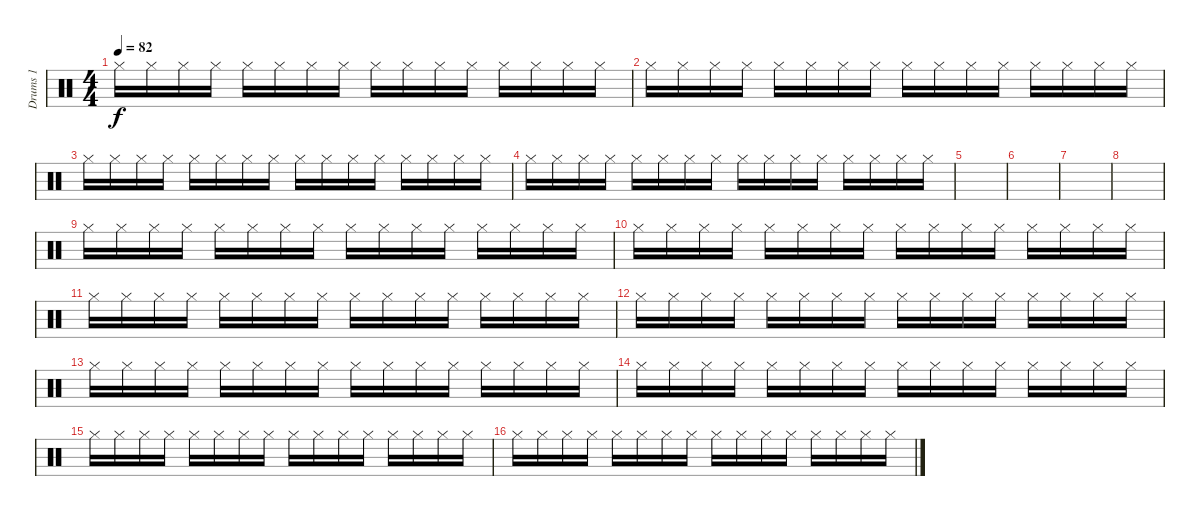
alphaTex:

\track ("Drums 1" "Drums 1") {instrument percussion}
\staff {score}
\articulation defaults
\ts (4 4)
\tempo 82
\clef neutral
\ks c "Hi-Hat (closed)".16{dy f} "Hi-Hat (closed)".16 "Hi-Hat (closed)".16 "Hi-Hat (closed)".16 "Hi-Hat (closed)".16 "Hi-Hat (closed)".16 "Hi-Hat (closed)".16 "Hi-Hat (closed)".16 "Hi-Hat (closed)".16 "Hi-Hat (closed)".16 "Hi-Hat (closed)".16 "Hi-Hat (closed)".16 "Hi-Hat (closed)".16 "Hi-Hat (closed)".16 "Hi-Hat (closed)".16 "Hi-Hat (closed)".16
|
"Hi-Hat (closed)".16 "Hi-Hat (closed)".16 "Hi-Hat (closed)".16 "Hi-Hat (closed)".16 "Hi-Hat (closed)".16 "Hi-Hat (closed)".16 "Hi-Hat (closed)".16 "Hi-Hat (closed)".16 "Hi-Hat (closed)".16 "Hi-Hat (closed)".16 "Hi-Hat (closed)".16 "Hi-Hat (closed)".16 "Hi-Hat (closed)".16 "Hi-Hat (closed)".16 "Hi-Hat (closed)".16 "Hi-Hat (closed)".16 |
"Hi-Hat (closed)".16 "Hi-Hat (closed)".16 "Hi-Hat (closed)".16 "Hi-Hat (closed)".16 "Hi-Hat (closed)".16 "Hi-Hat (closed)".16 "Hi-Hat (closed)".16 "Hi-Hat (closed)".16 "Hi-Hat (closed)".16 "Hi-Hat (closed)".16 "Hi-Hat (closed)".16 "Hi-Hat (closed)".16 "Hi-Hat (closed)".16 "Hi-Hat (closed)".16 "Hi-Hat (closed)".16 "Hi-Hat (closed)".16 |
"Hi-Hat (closed)".16 "Hi-Hat (closed)".16 "Hi-Hat (closed)".16 "Hi-Hat (closed)".16 "Hi-Hat (closed)".16 "Hi-Hat (closed)".16 "Hi-Hat (closed)".16 "Hi-Hat (closed)".16 "Hi-Hat (closed)".16 "Hi-Hat (closed)".16 "Hi-Hat (closed)".16 "Hi-Hat (closed)".16 "Hi-Hat (closed)".16 "Hi-Hat (closed)".16 "Hi-Hat (closed)".16 "Hi-Hat (closed)".16 |
|
|
|
|
"Hi-Hat (closed)".16 "Hi-Hat (closed)".16 "Hi-Hat (closed)".16 "Hi-Hat (closed)".16 "Hi-Hat (closed)".16 "Hi-Hat (closed)".16 "Hi-Hat (closed)".16 "Hi-Hat (closed)".16 "Hi-Hat (closed)".16 "Hi-Hat (closed)".16 "Hi-Hat (closed)".16 "Hi-Hat (closed)".16 "Hi-Hat (closed)".16 "Hi-Hat (closed)".16 "Hi-Hat (closed)".16 "Hi-Hat (closed)".16 |
"Hi-Hat (closed)".16 "Hi-Hat (closed)".16 "Hi-Hat (closed)".16 "Hi-Hat (closed)".16 "Hi-Hat (closed)".16 "Hi-Hat (closed)".16 "Hi-Hat (closed)".16 "Hi-Hat (closed)".16 "Hi-Hat (closed)".16 "Hi-Hat (closed)".16 "Hi-Hat (closed)".16 "Hi-Hat (closed)".16 "Hi-Hat (closed)".16 "Hi-Hat (closed)".16 "Hi-Hat (closed)".16 "Hi-Hat (closed)".16 |
"Hi-Hat (closed)".16 "Hi-Hat (closed)".16 "Hi-Hat (closed)".16 "Hi-Hat (closed)".16 "Hi-Hat (closed)".16 "Hi-Hat (closed)".16 "Hi-Hat (closed)".16 "Hi-Hat (closed)".16 "Hi-Hat (closed)".16 "Hi-Hat (closed)".16 "Hi-Hat (closed)".16 "Hi-Hat (closed)".16 "Hi-Hat (closed)".16 "Hi-Hat (closed)".16 "Hi-Hat (closed)".16 "Hi-Hat (closed)".16 |
"Hi-Hat (closed)".16 "Hi-Hat (closed)".16 "Hi-Hat (closed)".16 "Hi-Hat (closed)".16 "Hi-Hat (closed)".16 "Hi-Hat (closed)".16 "Hi-Hat (closed)".16 "Hi-Hat (closed)".16 "Hi-Hat (closed)".16 "Hi-Hat (closed)".16 "Hi-Hat (closed)".16 "Hi-Hat (closed)".16 "Hi-Hat (closed)".16 "Hi-Hat (closed)".16 "Hi-Hat (closed)".16 "Hi-Hat (closed)".16 |
"Hi-Hat (closed)".16 "Hi-Hat (closed)".16 "Hi-Hat (closed)".16 "Hi-Hat (closed)".16 "Hi-Hat (closed)".16 "Hi-Hat (closed)".16 "Hi-Hat (closed)".16 "Hi-Hat (closed)".16 "Hi-Hat (closed)".16 "Hi-Hat (closed)".16 "Hi-Hat (closed)".16 "Hi-Hat (closed)".16 "Hi-Hat (closed)".16 "Hi-Hat (closed)".16 "Hi-Hat (closed)".16 "Hi-Hat (closed)".16 |
"Hi-Hat (closed)".16 "Hi-Hat (closed)".16 "Hi-Hat (closed)".16 "Hi-Hat (closed)".16 "Hi-Hat (closed)".16 "Hi-Hat (closed)".16 "Hi-Hat (closed)".16 "Hi-Hat (closed)".16 "Hi-Hat (closed)".16 "Hi-Hat (closed)".16 "Hi-Hat (closed)".16 "Hi-Hat (closed)".16 "Hi-Hat (closed)".16 "Hi-Hat (closed)".16 "Hi-Hat (closed)".16 "Hi-Hat (closed)".16 |
"Hi-Hat (closed)".16 "Hi-Hat (closed)".16 "Hi-Hat (closed)".16 "Hi-Hat (closed)".16 "Hi-Hat (closed)".16 "Hi-Hat (closed)".16 "Hi-Hat (closed)".16 "Hi-Hat (closed)".16 "Hi-Hat (closed)".16 "Hi-Hat (closed)".16 "Hi-Hat (closed)".16 "Hi-Hat (closed)".16 "Hi-Hat (closed)".16 "Hi-Hat (closed)".16 "Hi-Hat (closed)".16 "Hi-Hat (closed)".16 |
"Hi-Hat (closed)".16 "Hi-Hat (closed)".16 "Hi-Hat (closed)".16 "Hi-Hat (closed)".16 "Hi-Hat (closed)".16 "Hi-Hat (closed)".16 "Hi-Hat (closed)".16 "Hi-Hat (closed)".16 "Hi-Hat (closed)".16 "Hi-Hat (closed)".16 "Hi-Hat (closed)".16 "Hi-Hat (closed)".16 "Hi-Hat (closed)".16 "Hi-Hat (closed)".16 "Hi-Hat (closed)".16 "Hi-Hat (closed)".16
